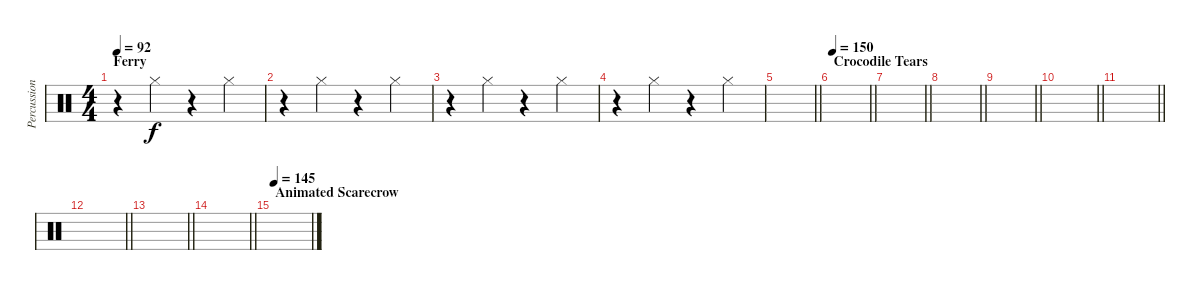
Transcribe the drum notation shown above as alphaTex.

\track ("Percussion" "Percussion") {instrument percussion}
\staff {score}
\articulation defaults
\ts (4 4)
\section ("" "Ferry")
\tempo 92
\clef neutral
\ks c
r.4{dy f} "Hi-Hat (closed)".4 r.4 "Hi-Hat (closed)".4 |
r.4 "Hi-Hat (closed)".4 r.4 "Hi-Hat (closed)".4 |
r.4 "Hi-Hat (closed)".4 r.4 "Hi-Hat (closed)".4 |
r.4 "Hi-Hat (closed)".4 r.4 "Hi-Hat (closed)".4 |
\barLineRight lightlight
|
\section ("" "Crocodile Tears")
\tempo 150
\barLineRight lightlight
|
\barLineRight lightlight
|
\barLineRight lightlight
|
\barLineRight lightlight
|
\barLineRight lightlight
|
\barLineRight lightlight
|
\barLineRight lightlight
|
\barLineRight lightlight
|
\barLineRight lightlight
|
\section ("" "Animated Scarecrow")
\tempo 145
